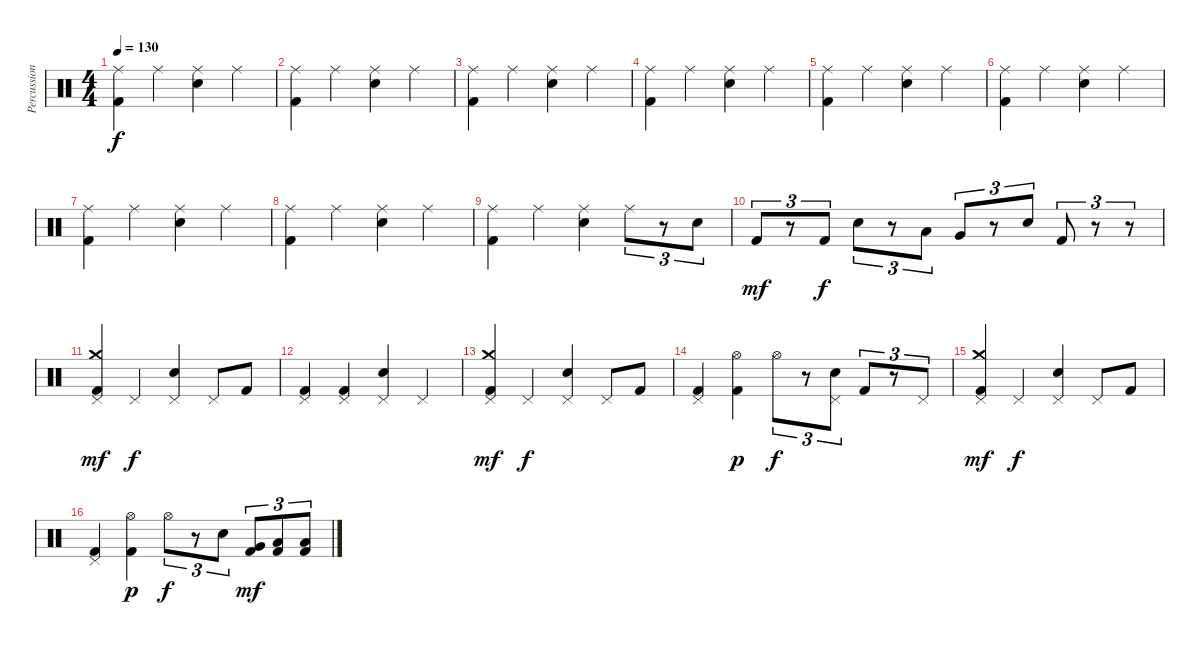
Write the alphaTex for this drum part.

\track ("Percussion" "Percussion") {instrument percussion}
\staff {score}
\articulation defaults
\ts (4 4)
\tempo 130
\clef neutral
\ks c
("Ride (middle)" "Kick (hit) 2").4{dy f} "Ride (middle)".4 ("Ride (middle)" "Snare (hit) 2").4 "Ride (middle)".4 |
("Ride (middle)" "Kick (hit) 2").4 "Ride (middle)".4 ("Ride (middle)" "Snare (hit) 2").4 "Ride (middle)".4 |
("Ride (middle)" "Kick (hit) 2").4 "Ride (middle)".4 ("Ride (middle)" "Snare (hit) 2").4 "Ride (middle)".4 |
("Ride (middle)" "Kick (hit) 2").4 "Ride (middle)".4 ("Ride (middle)" "Snare (hit) 2").4 "Ride (middle)".4 |
("Ride (middle)" "Kick (hit) 2").4 "Ride (middle)".4 ("Ride (middle)" "Snare (hit) 2").4 "Ride (middle)".4 |
("Ride (middle)" "Kick (hit) 2").4 "Ride (middle)".4 ("Ride (middle)" "Snare (hit) 2").4 "Ride (middle)".4 |
("Ride (middle)" "Kick (hit) 2").4 "Ride (middle)".4 ("Ride (middle)" "Snare (hit) 2").4 "Ride (middle)".4 |
("Ride (middle)" "Kick (hit) 2").4 "Ride (middle)".4 ("Ride (middle)" "Snare (hit) 2").4 "Ride (middle)".4 |
("Ride (middle)" "Kick (hit) 2").4 "Ride (middle)".4 ("Ride (middle)" "Snare (hit) 2").4 "Ride (middle)".8{tu (3 2)} r.8{tu (3 2)} "Snare (hit) 2".8{tu (3 2)} |
"Kick (hit) 2".8{tu (3 2) dy mf} r.8{tu (3 2)} "Kick (hit) 2".8{tu (3 2) dy f} "Snare (hit) 2".8{tu (3 2)} r.8{tu (3 2)} "Low Tom (hit)".8{tu (3 2)} "Very Low Tom (hit)".8{tu (3 2)} r.8{tu (3 2)} "Snare (hit) 2".8{tu (3 2)} "Kick (hit) 2".8{tu (3 2)} r.8{tu (3 2)} r.8{tu (3 2)} |
("Crash medium (hit)" "Pedal Hi-Hat (hit)" "Kick (hit) 2").4{dy mf} "Pedal Hi-Hat (hit)".4{dy f} ("Pedal Hi-Hat (hit)" "Snare (hit) 2").4 "Pedal Hi-Hat (hit)".8 "Kick (hit) 2".8 |
("Pedal Hi-Hat (hit)" "Kick (hit) 2").4 ("Pedal Hi-Hat (hit)" "Kick (hit) 2").4 ("Pedal Hi-Hat (hit)" "Snare (hit) 2").4 "Pedal Hi-Hat (hit)".4 |
("Crash medium (hit)" "Pedal Hi-Hat (hit)" "Kick (hit) 2").4{dy mf} "Pedal Hi-Hat (hit)".4{dy f} ("Pedal Hi-Hat (hit)" "Snare (hit) 2").4 "Pedal Hi-Hat (hit)".8 "Kick (hit) 2".8 |
("Pedal Hi-Hat (hit)" "Kick (hit) 2").4 ("Hi-Hat (open)" "Kick (hit) 2").4{dy p} "Hi-Hat (open)".8{tu (3 2) dy f} r.8{tu (3 2)} ("Pedal Hi-Hat (hit)" "Snare (hit) 2").8{tu (3 2)} "Kick (hit) 2".8{tu (3 2)} r.8{tu (3 2)} "Pedal Hi-Hat (hit)".8{tu (3 2)} |
("Crash medium (hit)" "Pedal Hi-Hat (hit)" "Kick (hit) 2").4{dy mf} "Pedal Hi-Hat (hit)".4{dy f} ("Pedal Hi-Hat (hit)" "Snare (hit) 2").4 "Pedal Hi-Hat (hit)".8 "Kick (hit) 2".8 |
("Pedal Hi-Hat (hit)" "Kick (hit) 2").4 ("Hi-Hat (open)" "Kick (hit) 2").4{dy p} "Hi-Hat (open)".8{tu (3 2) dy f} r.8{tu (3 2)} "Snare (hit) 2".8{tu (3 2)} ("Very Low Tom (hit)" "Kick (hit) 2").8{tu (3 2) dy mf} ("Low Floor Tom (hit)" "Kick (hit) 2").8{tu (3 2)} ("Low Floor Tom (hit)" "Kick (hit) 2").8{tu (3 2)}
